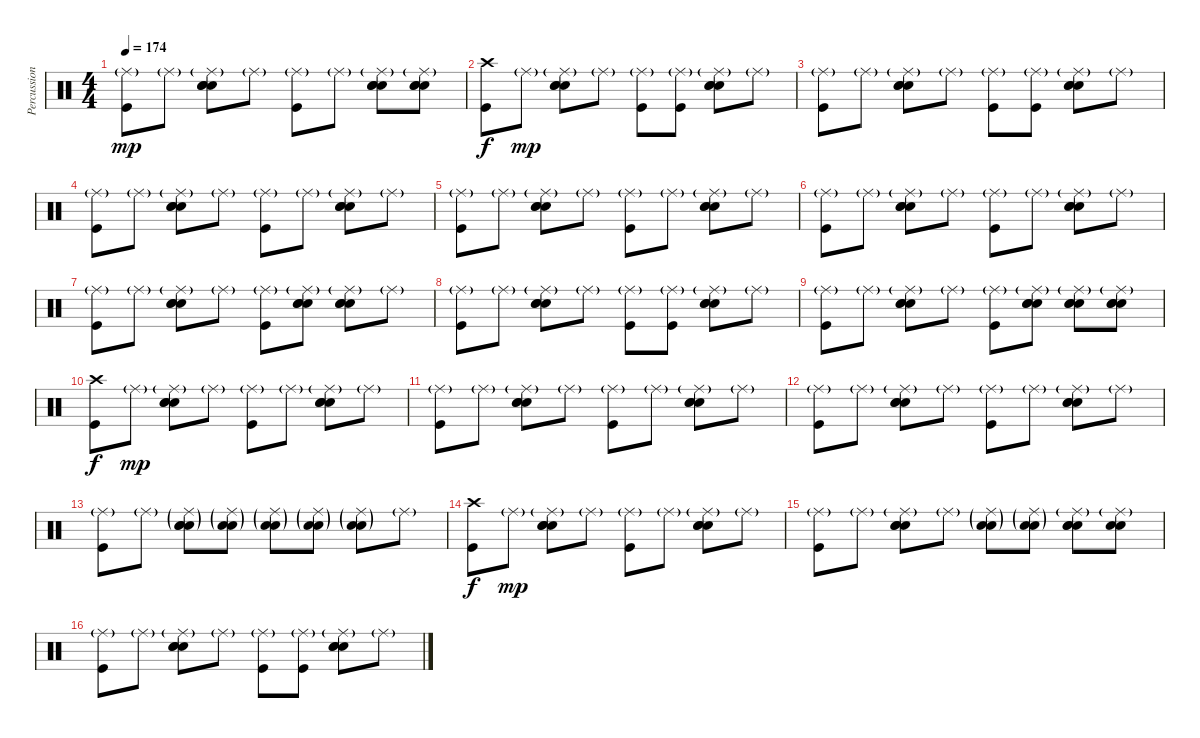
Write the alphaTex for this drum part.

\track ("Percussion" "Percussion") {instrument percussion}
\staff {score}
\articulation defaults
\ts (4 4)
\tempo 174
\clef neutral
\ks c
("Ride (middle)"{g} "Kick (hit)").8{dy mp} "Ride (middle)"{g}.8 ("Ride (middle)"{g} "Snare (hit) 2" "Electric Snare (hit)" "Electric Snare (hit)").8 "Ride (middle)"{g}.8 ("Ride (middle)"{g} "Kick (hit)").8 "Ride (middle)"{g}.8 ("Ride (middle)"{g} "Snare (hit) 2" "Electric Snare (hit)" "Electric Snare (hit)").8 ("Ride (middle)"{g} "Snare (hit) 2" "Electric Snare (hit)" "Electric Snare (hit)").8 |
("Crash high (hit)" "Kick (hit)").8{dy f} "Ride (middle)"{g}.8{dy mp} ("Ride (middle)"{g} "Snare (hit) 2" "Electric Snare (hit)" "Electric Snare (hit)").8 "Ride (middle)"{g}.8 ("Ride (middle)"{g} "Kick (hit)").8 ("Ride (middle)"{g} "Kick (hit)").8 ("Ride (middle)"{g} "Snare (hit) 2" "Electric Snare (hit)" "Electric Snare (hit)").8 "Ride (middle)"{g}.8 |
("Ride (middle)"{g} "Kick (hit)").8 "Ride (middle)"{g}.8 ("Ride (middle)"{g} "Snare (hit) 2" "Electric Snare (hit)" "Electric Snare (hit)").8 "Ride (middle)"{g}.8 ("Ride (middle)"{g} "Kick (hit)").8 ("Ride (middle)"{g} "Kick (hit)").8 ("Ride (middle)"{g} "Snare (hit) 2" "Electric Snare (hit)" "Electric Snare (hit)").8 "Ride (middle)"{g}.8 |
("Ride (middle)"{g} "Kick (hit)").8 "Ride (middle)"{g}.8 ("Ride (middle)"{g} "Snare (hit) 2" "Electric Snare (hit)" "Electric Snare (hit)").8 "Ride (middle)"{g}.8 ("Ride (middle)"{g} "Kick (hit)").8 "Ride (middle)"{g}.8 ("Ride (middle)"{g} "Snare (hit) 2" "Electric Snare (hit)" "Electric Snare (hit)").8 "Ride (middle)"{g}.8 |
("Ride (middle)"{g} "Kick (hit)").8 "Ride (middle)"{g}.8 ("Ride (middle)"{g} "Snare (hit) 2" "Electric Snare (hit)" "Electric Snare (hit)").8 "Ride (middle)"{g}.8 ("Ride (middle)"{g} "Kick (hit)").8 "Ride (middle)"{g}.8 ("Ride (middle)"{g} "Snare (hit) 2" "Electric Snare (hit)" "Electric Snare (hit)").8 "Ride (middle)"{g}.8 |
("Ride (middle)"{g} "Kick (hit)").8 "Ride (middle)"{g}.8 ("Ride (middle)"{g} "Snare (hit) 2" "Electric Snare (hit)" "Electric Snare (hit)").8 "Ride (middle)"{g}.8 ("Ride (middle)"{g} "Kick (hit)").8 "Ride (middle)"{g}.8 ("Ride (middle)"{g} "Snare (hit) 2" "Electric Snare (hit)" "Electric Snare (hit)").8 "Ride (middle)"{g}.8 |
("Ride (middle)"{g} "Kick (hit)").8 "Ride (middle)"{g}.8 ("Ride (middle)"{g} "Snare (hit) 2" "Electric Snare (hit)" "Electric Snare (hit)").8 "Ride (middle)"{g}.8 ("Ride (middle)"{g} "Kick (hit)").8 ("Ride (middle)"{g} "Snare (hit) 2" "Electric Snare (hit)" "Electric Snare (hit)").8 ("Ride (middle)"{g} "Snare (hit) 2" "Electric Snare (hit)" "Electric Snare (hit)").8 "Ride (middle)"{g}.8 |
("Ride (middle)"{g} "Kick (hit)").8 "Ride (middle)"{g}.8 ("Ride (middle)"{g} "Snare (hit) 2" "Electric Snare (hit)" "Electric Snare (hit)").8 "Ride (middle)"{g}.8 ("Ride (middle)"{g} "Kick (hit)").8 ("Ride (middle)"{g} "Kick (hit)").8 ("Ride (middle)"{g} "Snare (hit) 2" "Electric Snare (hit)" "Electric Snare (hit)").8 "Ride (middle)"{g}.8 |
("Ride (middle)"{g} "Kick (hit)").8 "Ride (middle)"{g}.8 ("Ride (middle)"{g} "Snare (hit) 2" "Electric Snare (hit)" "Electric Snare (hit)").8 "Ride (middle)"{g}.8 ("Ride (middle)"{g} "Kick (hit)").8 ("Ride (middle)"{g} "Snare (hit) 2" "Electric Snare (hit)" "Electric Snare (hit)").8 ("Ride (middle)"{g} "Snare (hit) 2" "Electric Snare (hit)" "Electric Snare (hit)").8 ("Ride (middle)"{g} "Snare (hit) 2" "Electric Snare (hit)" "Electric Snare (hit)").8 |
("Crash high (hit)" "Kick (hit)").8{dy f} "Ride (middle)"{g}.8{dy mp} ("Ride (middle)"{g} "Snare (hit) 2" "Electric Snare (hit)" "Electric Snare (hit)").8 "Ride (middle)"{g}.8 ("Ride (middle)"{g} "Kick (hit)").8 "Ride (middle)"{g}.8 ("Ride (middle)"{g} "Snare (hit) 2" "Electric Snare (hit)" "Electric Snare (hit)").8 "Ride (middle)"{g}.8 |
("Ride (middle)"{g} "Kick (hit)").8 "Ride (middle)"{g}.8 ("Ride (middle)"{g} "Snare (hit) 2" "Electric Snare (hit)" "Electric Snare (hit)").8 "Ride (middle)"{g}.8 ("Ride (middle)"{g} "Kick (hit)").8 "Ride (middle)"{g}.8 ("Ride (middle)"{g} "Snare (hit) 2" "Electric Snare (hit)" "Electric Snare (hit)").8 "Ride (middle)"{g}.8 |
("Ride (middle)"{g} "Kick (hit)").8 "Ride (middle)"{g}.8 ("Ride (middle)"{g} "Snare (hit) 2" "Electric Snare (hit)" "Electric Snare (hit)").8 "Ride (middle)"{g}.8 ("Ride (middle)"{g} "Kick (hit)").8 "Ride (middle)"{g}.8 ("Ride (middle)"{g} "Snare (hit) 2" "Electric Snare (hit)" "Electric Snare (hit)").8 "Ride (middle)"{g}.8 |
("Ride (middle)"{g} "Kick (hit)").8 "Ride (middle)"{g}.8 ("Ride (middle)"{g} "Snare (hit) 2"{g} "Electric Snare (hit)"{g} "Electric Snare (hit)"{g}).8 ("Ride (middle)"{g} "Snare (hit) 2"{g} "Electric Snare (hit)"{g}).8 ("Ride (middle)"{g} "Snare (hit) 2"{g} "Electric Snare (hit)"{g}).8 ("Ride (middle)"{g} "Snare (hit) 2"{g} "Electric Snare (hit)"{g}).8 ("Ride (middle)"{g} "Snare (hit) 2"{g} "Electric Snare (hit)").8 "Ride (middle)"{g}.8 |
("Crash high (hit)" "Kick (hit)").8{dy f} "Ride (middle)"{g}.8{dy mp} ("Ride (middle)"{g} "Snare (hit) 2" "Electric Snare (hit)" "Electric Snare (hit)").8 "Ride (middle)"{g}.8 ("Ride (middle)"{g} "Kick (hit)").8 "Ride (middle)"{g}.8 ("Ride (middle)"{g} "Snare (hit) 2" "Electric Snare (hit)" "Electric Snare (hit)").8 "Ride (middle)"{g}.8 |
("Ride (middle)"{g} "Kick (hit)").8 "Ride (middle)"{g}.8 ("Ride (middle)"{g} "Snare (hit) 2" "Electric Snare (hit)" "Electric Snare (hit)").8 "Ride (middle)"{g}.8 ("Ride (middle)"{g} "Snare (hit) 2"{g} "Electric Snare (hit)"{g}).8 ("Ride (middle)"{g} "Snare (hit) 2"{g} "Electric Snare (hit)"{g}).8 ("Ride (middle)"{g} "Snare (hit) 2" "Electric Snare (hit)" "Electric Snare (hit)").8 ("Ride (middle)"{g} "Snare (hit) 2" "Electric Snare (hit)").8 |
("Ride (middle)"{g} "Kick (hit)").8 "Ride (middle)"{g}.8 ("Ride (middle)"{g} "Snare (hit) 2" "Electric Snare (hit)" "Electric Snare (hit)").8 "Ride (middle)"{g}.8 ("Ride (middle)"{g} "Kick (hit)").8 ("Ride (middle)"{g} "Kick (hit)").8 ("Ride (middle)"{g} "Snare (hit) 2" "Electric Snare (hit)" "Electric Snare (hit)").8 "Ride (middle)"{g}.8
